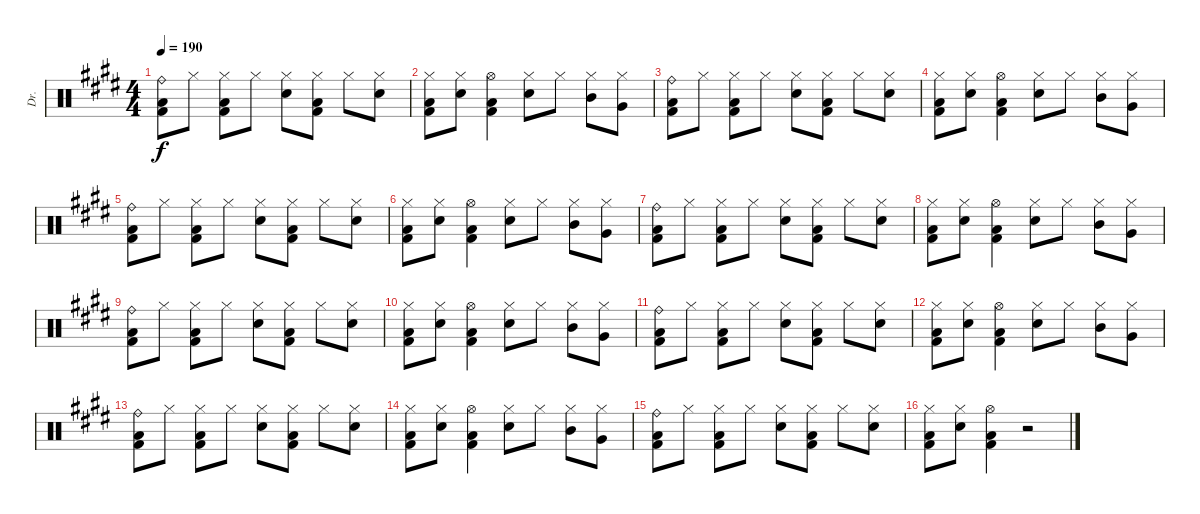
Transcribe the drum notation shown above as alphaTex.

\track ("Dr." "Dr.") {instrument percussion}
\staff {score}
\articulation defaults
\ts (4 4)
\tempo 190
\clef neutral
\ks e
("Ride (bell)" "Low Floor Tom (hit)" "Kick (hit) 2").8{dy f} "Hi-Hat (closed)".8 ("Hi-Hat (closed)" "Low Floor Tom (hit)" "Kick (hit) 2").8 "Hi-Hat (closed)".8 ("Electric Snare (hit)" "Hi-Hat (closed)").8 ("Hi-Hat (closed)" "Low Floor Tom (hit)" "Kick (hit) 2").8 "Hi-Hat (closed)".8 ("Electric Snare (hit)" "Hi-Hat (closed)").8 |
("Hi-Hat (closed)" "Low Floor Tom (hit)" "Kick (hit) 2").8 ("Electric Snare (hit)" "Hi-Hat (closed)").8 ("Hi-Hat (open)" "Low Floor Tom (hit)" "Kick (hit) 2").4 ("Electric Snare (hit)" "Hi-Hat (closed)").8 "Hi-Hat (closed)".8 ("Mid Tom (hit)" "Hi-Hat (closed)").8 ("Very Low Tom (hit)" "Hi-Hat (closed)").8 |
("Ride (bell)" "Low Floor Tom (hit)" "Kick (hit) 2").8 "Hi-Hat (closed)".8 ("Hi-Hat (closed)" "Low Floor Tom (hit)" "Kick (hit) 2").8 "Hi-Hat (closed)".8 ("Electric Snare (hit)" "Hi-Hat (closed)").8 ("Hi-Hat (closed)" "Low Floor Tom (hit)" "Kick (hit) 2").8 "Hi-Hat (closed)".8 ("Electric Snare (hit)" "Hi-Hat (closed)").8 |
("Hi-Hat (closed)" "Low Floor Tom (hit)" "Kick (hit) 2").8 ("Electric Snare (hit)" "Hi-Hat (closed)").8 ("Hi-Hat (open)" "Low Floor Tom (hit)" "Kick (hit) 2").4 ("Electric Snare (hit)" "Hi-Hat (closed)").8 "Hi-Hat (closed)".8 ("Mid Tom (hit)" "Hi-Hat (closed)").8 ("Very Low Tom (hit)" "Hi-Hat (closed)").8 |
("Ride (bell)" "Low Floor Tom (hit)" "Kick (hit) 2").8 "Hi-Hat (closed)".8 ("Hi-Hat (closed)" "Low Floor Tom (hit)" "Kick (hit) 2").8 "Hi-Hat (closed)".8 ("Electric Snare (hit)" "Hi-Hat (closed)").8 ("Hi-Hat (closed)" "Low Floor Tom (hit)" "Kick (hit) 2").8 "Hi-Hat (closed)".8 ("Electric Snare (hit)" "Hi-Hat (closed)").8 |
("Hi-Hat (closed)" "Low Floor Tom (hit)" "Kick (hit) 2").8 ("Electric Snare (hit)" "Hi-Hat (closed)").8 ("Hi-Hat (open)" "Low Floor Tom (hit)" "Kick (hit) 2").4 ("Electric Snare (hit)" "Hi-Hat (closed)").8 "Hi-Hat (closed)".8 ("Mid Tom (hit)" "Hi-Hat (closed)").8 ("Very Low Tom (hit)" "Hi-Hat (closed)").8 |
("Ride (bell)" "Low Floor Tom (hit)" "Kick (hit) 2").8 "Hi-Hat (closed)".8 ("Hi-Hat (closed)" "Low Floor Tom (hit)" "Kick (hit) 2").8 "Hi-Hat (closed)".8 ("Electric Snare (hit)" "Hi-Hat (closed)").8 ("Hi-Hat (closed)" "Low Floor Tom (hit)" "Kick (hit) 2").8 "Hi-Hat (closed)".8 ("Electric Snare (hit)" "Hi-Hat (closed)").8 |
("Hi-Hat (closed)" "Low Floor Tom (hit)" "Kick (hit) 2").8 ("Electric Snare (hit)" "Hi-Hat (closed)").8 ("Hi-Hat (open)" "Low Floor Tom (hit)" "Kick (hit) 2").4 ("Electric Snare (hit)" "Hi-Hat (closed)").8 "Hi-Hat (closed)".8 ("Mid Tom (hit)" "Hi-Hat (closed)").8 ("Very Low Tom (hit)" "Hi-Hat (closed)").8 |
("Ride (bell)" "Low Floor Tom (hit)" "Kick (hit) 2").8 "Hi-Hat (closed)".8 ("Hi-Hat (closed)" "Low Floor Tom (hit)" "Kick (hit) 2").8 "Hi-Hat (closed)".8 ("Electric Snare (hit)" "Hi-Hat (closed)").8 ("Hi-Hat (closed)" "Low Floor Tom (hit)" "Kick (hit) 2").8 "Hi-Hat (closed)".8 ("Electric Snare (hit)" "Hi-Hat (closed)").8 |
("Hi-Hat (closed)" "Low Floor Tom (hit)" "Kick (hit) 2").8 ("Electric Snare (hit)" "Hi-Hat (closed)").8 ("Hi-Hat (open)" "Low Floor Tom (hit)" "Kick (hit) 2").4 ("Electric Snare (hit)" "Hi-Hat (closed)").8 "Hi-Hat (closed)".8 ("Mid Tom (hit)" "Hi-Hat (closed)").8 ("Very Low Tom (hit)" "Hi-Hat (closed)").8 |
("Ride (bell)" "Low Floor Tom (hit)" "Kick (hit) 2").8 "Hi-Hat (closed)".8 ("Hi-Hat (closed)" "Low Floor Tom (hit)" "Kick (hit) 2").8 "Hi-Hat (closed)".8 ("Electric Snare (hit)" "Hi-Hat (closed)").8 ("Hi-Hat (closed)" "Low Floor Tom (hit)" "Kick (hit) 2").8 "Hi-Hat (closed)".8 ("Electric Snare (hit)" "Hi-Hat (closed)").8 |
("Hi-Hat (closed)" "Low Floor Tom (hit)" "Kick (hit) 2").8 ("Electric Snare (hit)" "Hi-Hat (closed)").8 ("Hi-Hat (open)" "Low Floor Tom (hit)" "Kick (hit) 2").4 ("Electric Snare (hit)" "Hi-Hat (closed)").8 "Hi-Hat (closed)".8 ("Mid Tom (hit)" "Hi-Hat (closed)").8 ("Very Low Tom (hit)" "Hi-Hat (closed)").8 |
("Ride (bell)" "Low Floor Tom (hit)" "Kick (hit) 2").8 "Hi-Hat (closed)".8 ("Hi-Hat (closed)" "Low Floor Tom (hit)" "Kick (hit) 2").8 "Hi-Hat (closed)".8 ("Electric Snare (hit)" "Hi-Hat (closed)").8 ("Hi-Hat (closed)" "Low Floor Tom (hit)" "Kick (hit) 2").8 "Hi-Hat (closed)".8 ("Electric Snare (hit)" "Hi-Hat (closed)").8 |
("Hi-Hat (closed)" "Low Floor Tom (hit)" "Kick (hit) 2").8 ("Electric Snare (hit)" "Hi-Hat (closed)").8 ("Hi-Hat (open)" "Low Floor Tom (hit)" "Kick (hit) 2").4 ("Electric Snare (hit)" "Hi-Hat (closed)").8 "Hi-Hat (closed)".8 ("Mid Tom (hit)" "Hi-Hat (closed)").8 ("Very Low Tom (hit)" "Hi-Hat (closed)").8 |
("Ride (bell)" "Low Floor Tom (hit)" "Kick (hit) 2").8 "Hi-Hat (closed)".8 ("Hi-Hat (closed)" "Low Floor Tom (hit)" "Kick (hit) 2").8 "Hi-Hat (closed)".8 ("Electric Snare (hit)" "Hi-Hat (closed)").8 ("Hi-Hat (closed)" "Low Floor Tom (hit)" "Kick (hit) 2").8 "Hi-Hat (closed)".8 ("Electric Snare (hit)" "Hi-Hat (closed)").8 |
("Hi-Hat (closed)" "Low Floor Tom (hit)" "Kick (hit) 2").8 ("Electric Snare (hit)" "Hi-Hat (closed)").8 ("Hi-Hat (open)" "Low Floor Tom (hit)" "Kick (hit) 2").4 r.2
